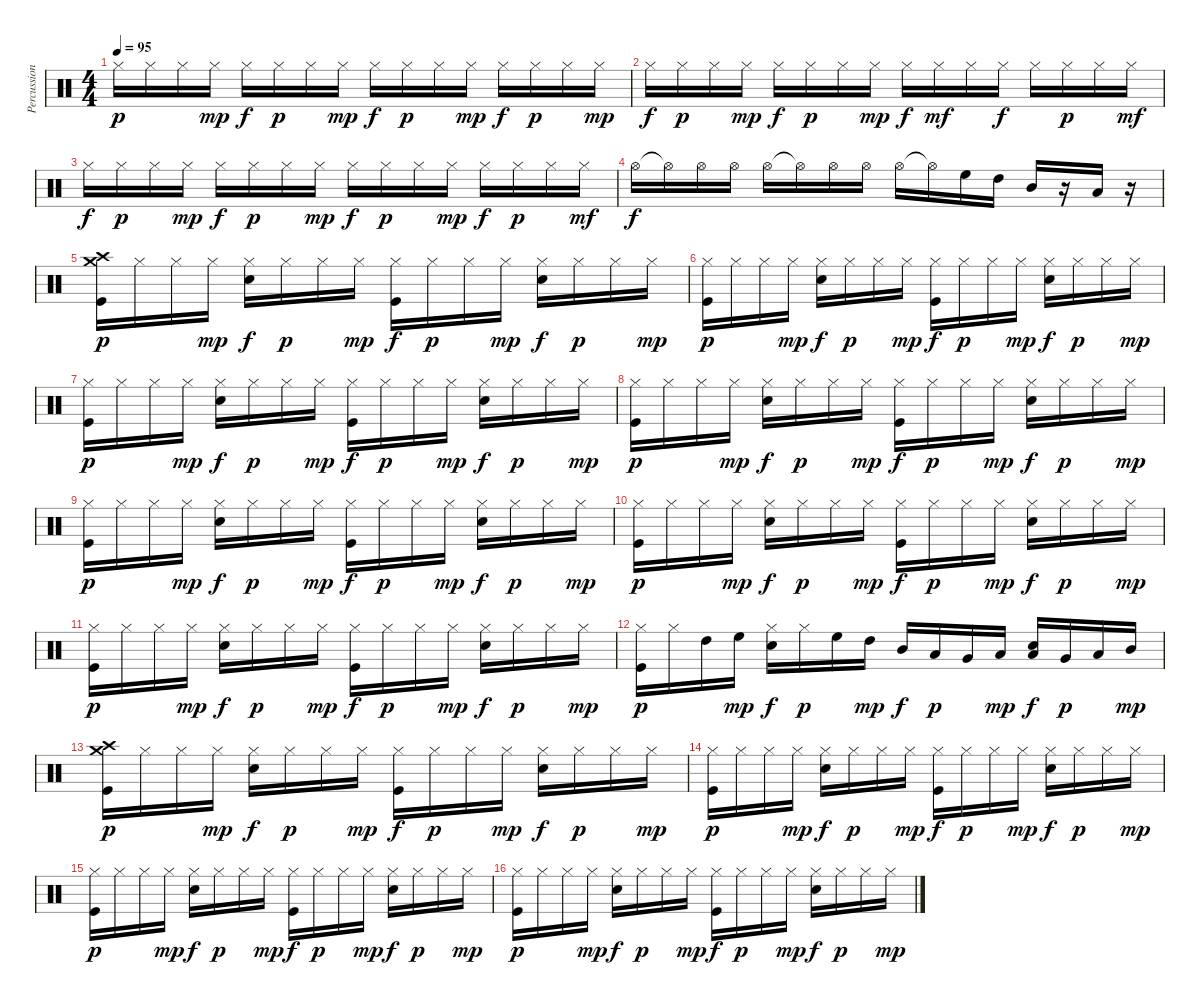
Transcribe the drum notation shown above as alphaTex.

\track ("Percussion" "Percussion") {instrument percussion}
\staff {score}
\articulation defaults
\ts (4 4)
\tempo 95
\clef neutral
\ks c "Hi-Hat (closed)".16{dy p} "Hi-Hat (closed)".16 "Hi-Hat (closed)".16 "Hi-Hat (closed)".16{dy mp} "Hi-Hat (closed)".16{dy f} "Hi-Hat (closed)".16{dy p} "Hi-Hat (closed)".16 "Hi-Hat (closed)".16{dy mp} "Hi-Hat (closed)".16{dy f} "Hi-Hat (closed)".16{dy p} "Hi-Hat (closed)".16 "Hi-Hat (closed)".16{dy mp} "Hi-Hat (closed)".16{dy f} "Hi-Hat (closed)".16{dy p} "Hi-Hat (closed)".16 "Hi-Hat (closed)".16{dy mp}
|
"Hi-Hat (closed)".16{dy f} "Hi-Hat (closed)".16{dy p} "Hi-Hat (closed)".16 "Hi-Hat (closed)".16{dy mp} "Hi-Hat (closed)".16{dy f} "Hi-Hat (closed)".16{dy p} "Hi-Hat (closed)".16 "Hi-Hat (closed)".16{dy mp} "Hi-Hat (closed)".16{dy f} "Hi-Hat (closed)".16{dy mf} "Hi-Hat (closed)".16 "Hi-Hat (closed)".16{dy f} "Hi-Hat (closed)".16 "Hi-Hat (closed)".16{dy p} "Hi-Hat (closed)".16 "Hi-Hat (closed)".16{dy mf} |
"Hi-Hat (closed)".16{dy f} "Hi-Hat (closed)".16{dy p} "Hi-Hat (closed)".16 "Hi-Hat (closed)".16{dy mp} "Hi-Hat (closed)".16{dy f} "Hi-Hat (closed)".16{dy p} "Hi-Hat (closed)".16 "Hi-Hat (closed)".16{dy mp} "Hi-Hat (closed)".16{dy f} "Hi-Hat (closed)".16{dy p} "Hi-Hat (closed)".16 "Hi-Hat (closed)".16{dy mp} "Hi-Hat (closed)".16{dy f} "Hi-Hat (closed)".16{dy p} "Hi-Hat (closed)".16 "Hi-Hat (closed)".16{dy mf} |
"Hi-Hat (open)".16{dy f} "Hi-Hat (open)"{t}.16 "Hi-Hat (open)".16 "Hi-Hat (open)".16 "Hi-Hat (open)".16 "Hi-Hat (open)"{t}.16 "Hi-Hat (open)".16 "Hi-Hat (open)".16 "Hi-Hat (open)".16 "Hi-Hat (open)"{t}.16 "High Floor Tom (hit)".16 "High Tom (hit)".16 "Mid Tom (hit)".16 r.16 "Low Tom (hit)".16 r.16 |
("Crash medium (hit)" "Crash high (hit)" "Kick (hit)").16{dy p} "Hi-Hat (closed)".16 "Hi-Hat (closed)".16 "Hi-Hat (closed)".16{dy mp} ("Hi-Hat (closed)" "Snare (hit) 2").16{dy f} "Hi-Hat (closed)".16{dy p} "Hi-Hat (closed)".16 "Hi-Hat (closed)".16{dy mp} ("Hi-Hat (closed)" "Kick (hit)").16{dy f} "Hi-Hat (closed)".16{dy p} "Hi-Hat (closed)".16 "Hi-Hat (closed)".16{dy mp} ("Hi-Hat (closed)" "Snare (hit) 2").16{dy f} "Hi-Hat (closed)".16{dy p} "Hi-Hat (closed)".16 "Hi-Hat (closed)".16{dy mp} |
("Hi-Hat (closed)" "Kick (hit)").16{dy p} "Hi-Hat (closed)".16 "Hi-Hat (closed)".16 "Hi-Hat (closed)".16{dy mp} ("Hi-Hat (closed)" "Snare (hit) 2").16{dy f} "Hi-Hat (closed)".16{dy p} "Hi-Hat (closed)".16 "Hi-Hat (closed)".16{dy mp} ("Hi-Hat (closed)" "Kick (hit)").16{dy f} "Hi-Hat (closed)".16{dy p} "Hi-Hat (closed)".16 "Hi-Hat (closed)".16{dy mp} ("Hi-Hat (closed)" "Snare (hit) 2").16{dy f} "Hi-Hat (closed)".16{dy p} "Hi-Hat (closed)".16 "Hi-Hat (closed)".16{dy mp} |
("Hi-Hat (closed)" "Kick (hit)").16{dy p} "Hi-Hat (closed)".16 "Hi-Hat (closed)".16 "Hi-Hat (closed)".16{dy mp} ("Hi-Hat (closed)" "Snare (hit) 2").16{dy f} "Hi-Hat (closed)".16{dy p} "Hi-Hat (closed)".16 "Hi-Hat (closed)".16{dy mp} ("Hi-Hat (closed)" "Kick (hit)").16{dy f} "Hi-Hat (closed)".16{dy p} "Hi-Hat (closed)".16 "Hi-Hat (closed)".16{dy mp} ("Hi-Hat (closed)" "Snare (hit) 2").16{dy f} "Hi-Hat (closed)".16{dy p} "Hi-Hat (closed)".16 "Hi-Hat (closed)".16{dy mp} |
("Hi-Hat (closed)" "Kick (hit)").16{dy p} "Hi-Hat (closed)".16 "Hi-Hat (closed)".16 "Hi-Hat (closed)".16{dy mp} ("Hi-Hat (closed)" "Snare (hit) 2").16{dy f} "Hi-Hat (closed)".16{dy p} "Hi-Hat (closed)".16 "Hi-Hat (closed)".16{dy mp} ("Hi-Hat (closed)" "Kick (hit)").16{dy f} "Hi-Hat (closed)".16{dy p} "Hi-Hat (closed)".16 "Hi-Hat (closed)".16{dy mp} ("Hi-Hat (closed)" "Snare (hit) 2").16{dy f} "Hi-Hat (closed)".16{dy p} "Hi-Hat (closed)".16 "Hi-Hat (closed)".16{dy mp} |
("Hi-Hat (closed)" "Kick (hit)").16{dy p} "Hi-Hat (closed)".16 "Hi-Hat (closed)".16 "Hi-Hat (closed)".16{dy mp} ("Hi-Hat (closed)" "Snare (hit) 2").16{dy f} "Hi-Hat (closed)".16{dy p} "Hi-Hat (closed)".16 "Hi-Hat (closed)".16{dy mp} ("Hi-Hat (closed)" "Kick (hit)").16{dy f} "Hi-Hat (closed)".16{dy p} "Hi-Hat (closed)".16 "Hi-Hat (closed)".16{dy mp} ("Hi-Hat (closed)" "Snare (hit) 2").16{dy f} "Hi-Hat (closed)".16{dy p} "Hi-Hat (closed)".16 "Hi-Hat (closed)".16{dy mp} |
("Hi-Hat (closed)" "Kick (hit)").16{dy p} "Hi-Hat (closed)".16 "Hi-Hat (closed)".16 "Hi-Hat (closed)".16{dy mp} ("Hi-Hat (closed)" "Snare (hit) 2").16{dy f} "Hi-Hat (closed)".16{dy p} "Hi-Hat (closed)".16 "Hi-Hat (closed)".16{dy mp} ("Hi-Hat (closed)" "Kick (hit)").16{dy f} "Hi-Hat (closed)".16{dy p} "Hi-Hat (closed)".16 "Hi-Hat (closed)".16{dy mp} ("Hi-Hat (closed)" "Snare (hit) 2").16{dy f} "Hi-Hat (closed)".16{dy p} "Hi-Hat (closed)".16 "Hi-Hat (closed)".16{dy mp} |
("Hi-Hat (closed)" "Kick (hit)").16{dy p} "Hi-Hat (closed)".16 "Hi-Hat (closed)".16 "Hi-Hat (closed)".16{dy mp} ("Hi-Hat (closed)" "Snare (hit) 2").16{dy f} "Hi-Hat (closed)".16{dy p} "Hi-Hat (closed)".16 "Hi-Hat (closed)".16{dy mp} ("Hi-Hat (closed)" "Kick (hit)").16{dy f} "Hi-Hat (closed)".16{dy p} "Hi-Hat (closed)".16 "Hi-Hat (closed)".16{dy mp} ("Hi-Hat (closed)" "Snare (hit) 2").16{dy f} "Hi-Hat (closed)".16{dy p} "Hi-Hat (closed)".16 "Hi-Hat (closed)".16{dy mp} |
("Hi-Hat (closed)" "Kick (hit)").16{dy p} "Hi-Hat (closed)".16 "High Tom (hit)".16 "High Floor Tom (hit)".16{dy mp} ("Hi-Hat (closed)" "Snare (hit) 2").16{dy f} "Hi-Hat (closed)".16{dy p} "High Floor Tom (hit)".16 "High Tom (hit)".16{dy mp} "Mid Tom (hit)".16{dy f} "Low Tom (hit)".16{dy p} "Very Low Tom (hit)".16 "Low Floor Tom (hit)".16{dy mp} ("Low Floor Tom (hit)" "Snare (hit) 2").16{dy f} "Very Low Tom (hit)".16{dy p} "Low Tom (hit)".16 "Mid Tom (hit)".16{dy mp} |
("Crash medium (hit)" "Crash high (hit)" "Kick (hit)").16{dy p} "Hi-Hat (closed)".16 "Hi-Hat (closed)".16 "Hi-Hat (closed)".16{dy mp} ("Hi-Hat (closed)" "Snare (hit) 2").16{dy f} "Hi-Hat (closed)".16{dy p} "Hi-Hat (closed)".16 "Hi-Hat (closed)".16{dy mp} ("Hi-Hat (closed)" "Kick (hit)").16{dy f} "Hi-Hat (closed)".16{dy p} "Hi-Hat (closed)".16 "Hi-Hat (closed)".16{dy mp} ("Hi-Hat (closed)" "Snare (hit) 2").16{dy f} "Hi-Hat (closed)".16{dy p} "Hi-Hat (closed)".16 "Hi-Hat (closed)".16{dy mp} |
("Hi-Hat (closed)" "Kick (hit)").16{dy p} "Hi-Hat (closed)".16 "Hi-Hat (closed)".16 "Hi-Hat (closed)".16{dy mp} ("Hi-Hat (closed)" "Snare (hit) 2").16{dy f} "Hi-Hat (closed)".16{dy p} "Hi-Hat (closed)".16 "Hi-Hat (closed)".16{dy mp} ("Hi-Hat (closed)" "Kick (hit)").16{dy f} "Hi-Hat (closed)".16{dy p} "Hi-Hat (closed)".16 "Hi-Hat (closed)".16{dy mp} ("Hi-Hat (closed)" "Snare (hit) 2").16{dy f} "Hi-Hat (closed)".16{dy p} "Hi-Hat (closed)".16 "Hi-Hat (closed)".16{dy mp} |
("Hi-Hat (closed)" "Kick (hit)").16{dy p} "Hi-Hat (closed)".16 "Hi-Hat (closed)".16 "Hi-Hat (closed)".16{dy mp} ("Hi-Hat (closed)" "Snare (hit) 2").16{dy f} "Hi-Hat (closed)".16{dy p} "Hi-Hat (closed)".16 "Hi-Hat (closed)".16{dy mp} ("Hi-Hat (closed)" "Kick (hit)").16{dy f} "Hi-Hat (closed)".16{dy p} "Hi-Hat (closed)".16 "Hi-Hat (closed)".16{dy mp} ("Hi-Hat (closed)" "Snare (hit) 2").16{dy f} "Hi-Hat (closed)".16{dy p} "Hi-Hat (closed)".16 "Hi-Hat (closed)".16{dy mp} |
("Hi-Hat (closed)" "Kick (hit)").16{dy p} "Hi-Hat (closed)".16 "Hi-Hat (closed)".16 "Hi-Hat (closed)".16{dy mp} ("Hi-Hat (closed)" "Snare (hit) 2").16{dy f} "Hi-Hat (closed)".16{dy p} "Hi-Hat (closed)".16 "Hi-Hat (closed)".16{dy mp} ("Hi-Hat (closed)" "Kick (hit)").16{dy f} "Hi-Hat (closed)".16{dy p} "Hi-Hat (closed)".16 "Hi-Hat (closed)".16{dy mp} ("Hi-Hat (closed)" "Snare (hit) 2").16{dy f} "Hi-Hat (closed)".16{dy p} "Hi-Hat (closed)".16 "Hi-Hat (closed)".16{dy mp}
